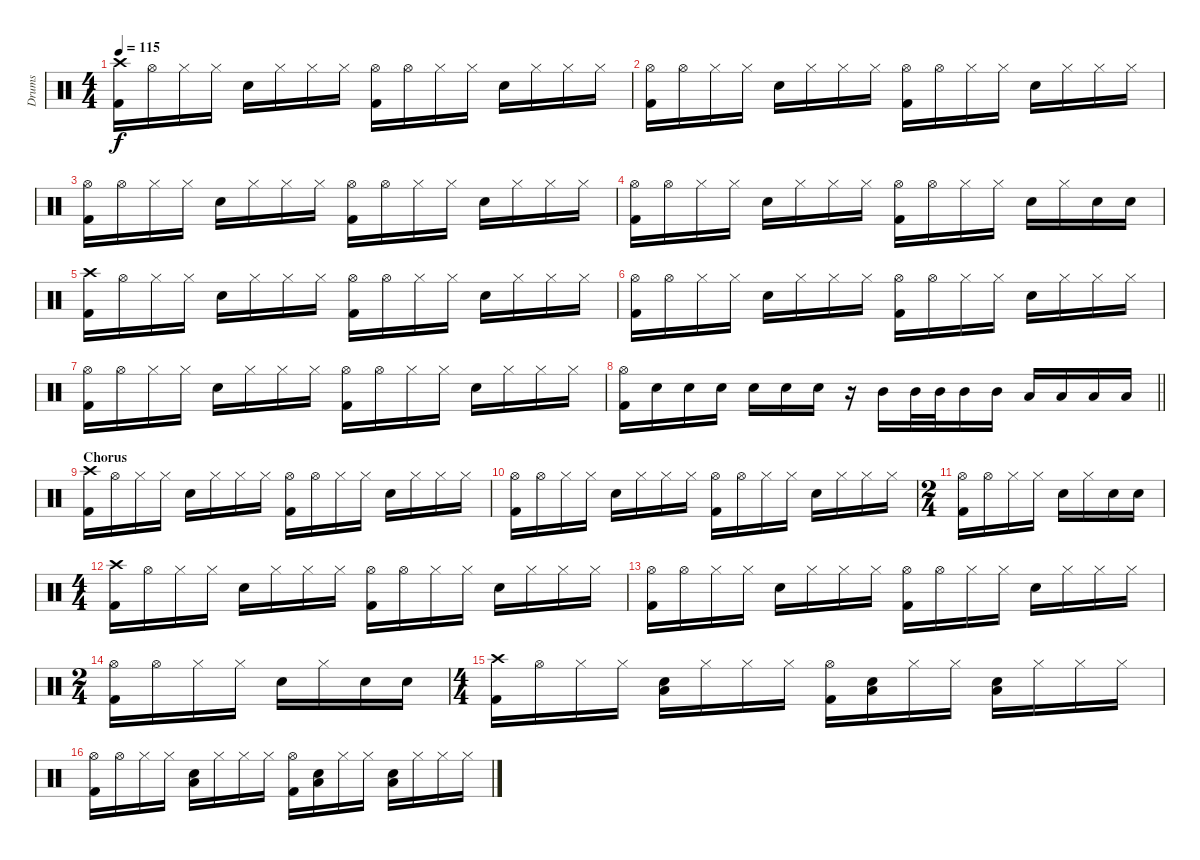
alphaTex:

\track ("Drums" "Drums") {instrument percussion}
\staff {score}
\articulation defaults
\ts (4 4)
\tempo 115
\clef neutral
\ks c
("Crash high (hit)" "Kick (hit) 2").16{dy f} "Hi-Hat (open)".16 "Hi-Hat (closed)".16 "Hi-Hat (closed)".16 "Electric Snare (hit)".16 "Hi-Hat (closed)".16 "Hi-Hat (closed)".16 "Hi-Hat (closed)".16 ("Hi-Hat (open)" "Kick (hit) 2").16 "Hi-Hat (open)".16 "Hi-Hat (closed)".16 "Hi-Hat (closed)".16 "Electric Snare (hit)".16 "Hi-Hat (closed)".16 "Hi-Hat (closed)".16 "Hi-Hat (closed)".16 |
("Hi-Hat (open)" "Kick (hit) 2").16 "Hi-Hat (open)".16 "Hi-Hat (closed)".16 "Hi-Hat (closed)".16 "Electric Snare (hit)".16 "Hi-Hat (closed)".16 "Hi-Hat (closed)".16 "Hi-Hat (closed)".16 ("Hi-Hat (open)" "Kick (hit) 2").16 "Hi-Hat (open)".16 "Hi-Hat (closed)".16 "Hi-Hat (closed)".16 "Electric Snare (hit)".16 "Hi-Hat (closed)".16 "Hi-Hat (closed)".16 "Hi-Hat (closed)".16 |
("Hi-Hat (open)" "Kick (hit) 2").16 "Hi-Hat (open)".16 "Hi-Hat (closed)".16 "Hi-Hat (closed)".16 "Electric Snare (hit)".16 "Hi-Hat (closed)".16 "Hi-Hat (closed)".16 "Hi-Hat (closed)".16 ("Hi-Hat (open)" "Kick (hit) 2").16 "Hi-Hat (open)".16 "Hi-Hat (closed)".16 "Hi-Hat (closed)".16 "Electric Snare (hit)".16 "Hi-Hat (closed)".16 "Hi-Hat (closed)".16 "Hi-Hat (closed)".16 |
("Hi-Hat (open)" "Kick (hit) 2").16 "Hi-Hat (open)".16 "Hi-Hat (closed)".16 "Hi-Hat (closed)".16 "Electric Snare (hit)".16 "Hi-Hat (closed)".16 "Hi-Hat (closed)".16 "Hi-Hat (closed)".16 ("Hi-Hat (open)" "Kick (hit) 2").16 "Hi-Hat (open)".16 "Hi-Hat (closed)".16 "Hi-Hat (closed)".16 "Electric Snare (hit)".16 "Hi-Hat (closed)".16 "Electric Snare (hit)".16 "Electric Snare (hit)".16 |
("Crash high (hit)" "Kick (hit) 2").16 "Hi-Hat (open)".16 "Hi-Hat (closed)".16 "Hi-Hat (closed)".16 "Electric Snare (hit)".16 "Hi-Hat (closed)".16 "Hi-Hat (closed)".16 "Hi-Hat (closed)".16 ("Hi-Hat (open)" "Kick (hit) 2").16 "Hi-Hat (open)".16 "Hi-Hat (closed)".16 "Hi-Hat (closed)".16 "Electric Snare (hit)".16 "Hi-Hat (closed)".16 "Hi-Hat (closed)".16 "Hi-Hat (closed)".16 |
("Hi-Hat (open)" "Kick (hit) 2").16 "Hi-Hat (open)".16 "Hi-Hat (closed)".16 "Hi-Hat (closed)".16 "Electric Snare (hit)".16 "Hi-Hat (closed)".16 "Hi-Hat (closed)".16 "Hi-Hat (closed)".16 ("Hi-Hat (open)" "Kick (hit) 2").16 "Hi-Hat (open)".16 "Hi-Hat (closed)".16 "Hi-Hat (closed)".16 "Electric Snare (hit)".16 "Hi-Hat (closed)".16 "Hi-Hat (closed)".16 "Hi-Hat (closed)".16 |
("Hi-Hat (open)" "Kick (hit) 2").16 "Hi-Hat (open)".16 "Hi-Hat (closed)".16 "Hi-Hat (closed)".16 "Electric Snare (hit)".16 "Hi-Hat (closed)".16 "Hi-Hat (closed)".16 "Hi-Hat (closed)".16 ("Hi-Hat (open)" "Kick (hit) 2").16 "Hi-Hat (open)".16 "Hi-Hat (closed)".16 "Hi-Hat (closed)".16 "Electric Snare (hit)".16 "Hi-Hat (closed)".16 "Hi-Hat (closed)".16 "Hi-Hat (closed)".16 |
\barLineRight lightlight
("Hi-Hat (open)" "Kick (hit) 2").16 "Electric Snare (hit)".16 "Electric Snare (hit)".16 "Electric Snare (hit)".16 "Electric Snare (hit)".16 "Electric Snare (hit)".16 "Electric Snare (hit)".16 r.16 "Mid Tom (hit)".16 "Mid Tom (hit)".32 "Mid Tom (hit)".32 "Mid Tom (hit)".16 "Mid Tom (hit)".16 "Low Tom (hit)".16 "Low Tom (hit)".16 "Low Floor Tom (hit)".16 "Low Floor Tom (hit)".16 |
\section ("" "Chorus")
("Crash high (hit)" "Kick (hit) 2").16 "Hi-Hat (open)".16 "Hi-Hat (closed)".16 "Hi-Hat (closed)".16 "Electric Snare (hit)".16 "Hi-Hat (closed)".16 "Hi-Hat (closed)".16 "Hi-Hat (closed)".16 ("Hi-Hat (open)" "Kick (hit) 2").16 "Hi-Hat (open)".16 "Hi-Hat (closed)".16 "Hi-Hat (closed)".16 "Electric Snare (hit)".16 "Hi-Hat (closed)".16 "Hi-Hat (closed)".16 "Hi-Hat (closed)".16 |
("Hi-Hat (open)" "Kick (hit) 2").16 "Hi-Hat (open)".16 "Hi-Hat (closed)".16 "Hi-Hat (closed)".16 "Electric Snare (hit)".16 "Hi-Hat (closed)".16 "Hi-Hat (closed)".16 "Hi-Hat (closed)".16 ("Hi-Hat (open)" "Kick (hit) 2").16 "Hi-Hat (open)".16 "Hi-Hat (closed)".16 "Hi-Hat (closed)".16 "Electric Snare (hit)".16 "Hi-Hat (closed)".16 "Hi-Hat (closed)".16 "Hi-Hat (closed)".16 |
\ts (2 4)
("Hi-Hat (open)" "Kick (hit) 2").16 "Hi-Hat (open)".16 "Hi-Hat (closed)".16 "Hi-Hat (closed)".16 "Electric Snare (hit)".16 "Hi-Hat (closed)".16 "Electric Snare (hit)".16 "Electric Snare (hit)".16 |
\ts (4 4)
("Crash high (hit)" "Kick (hit) 2").16 "Hi-Hat (open)".16 "Hi-Hat (closed)".16 "Hi-Hat (closed)".16 "Electric Snare (hit)".16 "Hi-Hat (closed)".16 "Hi-Hat (closed)".16 "Hi-Hat (closed)".16 ("Hi-Hat (open)" "Kick (hit) 2").16 "Hi-Hat (open)".16 "Hi-Hat (closed)".16 "Hi-Hat (closed)".16 "Electric Snare (hit)".16 "Hi-Hat (closed)".16 "Hi-Hat (closed)".16 "Hi-Hat (closed)".16 |
("Hi-Hat (open)" "Kick (hit) 2").16 "Hi-Hat (open)".16 "Hi-Hat (closed)".16 "Hi-Hat (closed)".16 "Electric Snare (hit)".16 "Hi-Hat (closed)".16 "Hi-Hat (closed)".16 "Hi-Hat (closed)".16 ("Hi-Hat (open)" "Kick (hit) 2").16 "Hi-Hat (open)".16 "Hi-Hat (closed)".16 "Hi-Hat (closed)".16 "Electric Snare (hit)".16 "Hi-Hat (closed)".16 "Hi-Hat (closed)".16 "Hi-Hat (closed)".16 |
\ts (2 4)
("Hi-Hat (open)" "Kick (hit) 2").16 "Hi-Hat (open)".16 "Hi-Hat (closed)".16 "Hi-Hat (closed)".16 "Electric Snare (hit)".16 "Hi-Hat (closed)".16 "Electric Snare (hit)".16 "Electric Snare (hit)".16 |
\ts (4 4)
("Crash high (hit)" "Kick (hit) 2").16 "Hi-Hat (open)".16 "Hi-Hat (closed)".16 "Hi-Hat (closed)".16 ("Low Floor Tom (hit)" "Electric Snare (hit)").16 "Hi-Hat (closed)".16 "Hi-Hat (closed)".16 "Hi-Hat (closed)".16 ("Hi-Hat (open)" "Kick (hit) 2").16 ("Low Floor Tom (hit)" "Electric Snare (hit)").16 "Hi-Hat (closed)".16 "Hi-Hat (closed)".16 ("Low Floor Tom (hit)" "Electric Snare (hit)").16 "Hi-Hat (closed)".16 "Hi-Hat (closed)".16 "Hi-Hat (closed)".16 |
("Hi-Hat (open)" "Kick (hit) 2").16 "Hi-Hat (open)".16 "Hi-Hat (closed)".16 "Hi-Hat (closed)".16 ("Low Floor Tom (hit)" "Electric Snare (hit)").16 "Hi-Hat (closed)".16 "Hi-Hat (closed)".16 "Hi-Hat (closed)".16 ("Hi-Hat (open)" "Kick (hit) 2").16 ("Low Floor Tom (hit)" "Electric Snare (hit)").16 "Hi-Hat (closed)".16 "Hi-Hat (closed)".16 ("Low Floor Tom (hit)" "Electric Snare (hit)").16 "Hi-Hat (closed)".16 "Hi-Hat (closed)".16 "Hi-Hat (closed)".16
